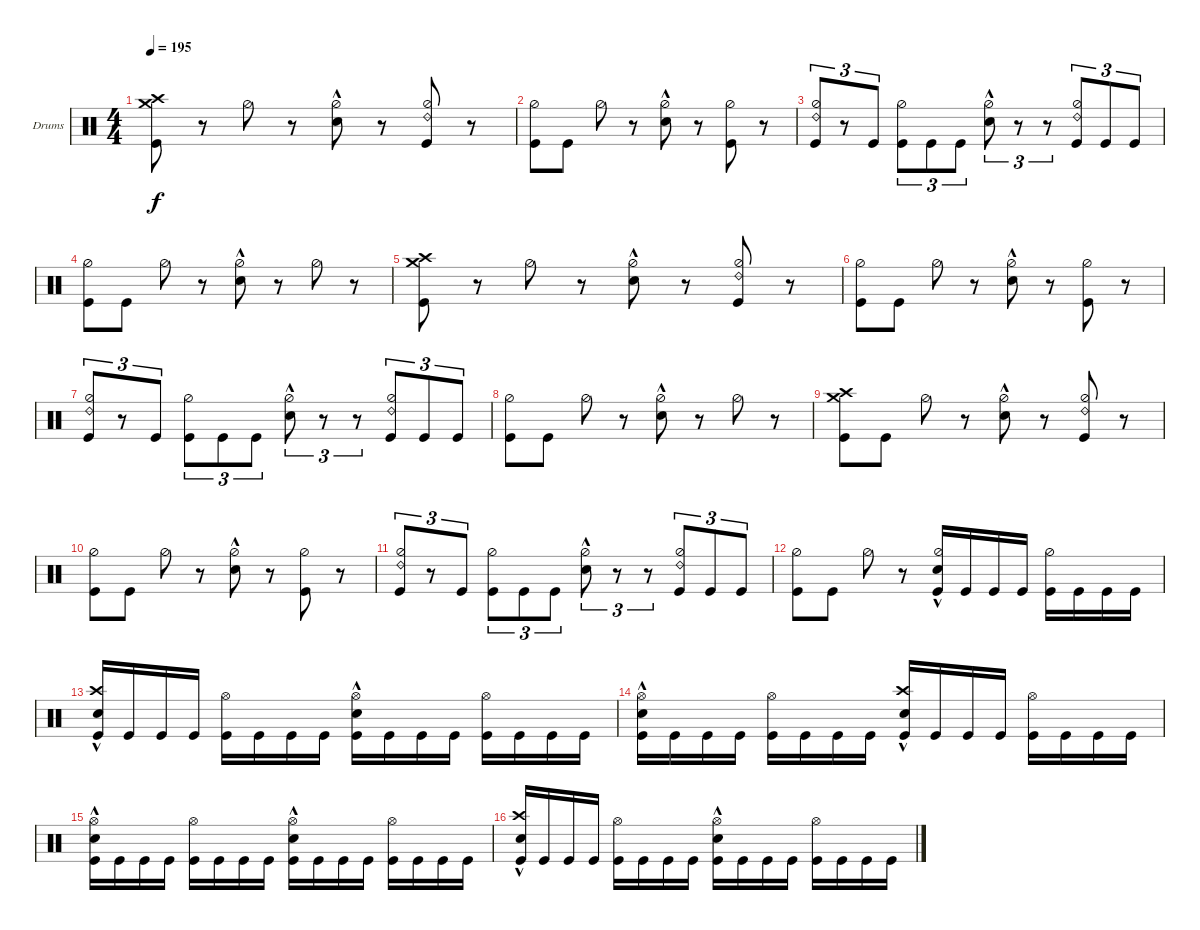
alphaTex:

\defaultSystemsLayout 4
\bracketExtendMode groupsimilarinstruments
\firstSystemTrackNameOrientation horizontal
\otherSystemsTrackNameOrientation horizontal
\track ("Drumkit" "Drums") {instrument percussion}
\staff {score}
\articulation defaults
\ts (4 4)
\tempo 195
\clef neutral
\ks c
("Kick (hit)" "Crash medium (hit)" "Crash high (hit)").8{dy f} r.8 "Hi-Hat (half)".8 r.8 ("Hi-Hat (half)" "Snare (hit) 2"{hac}).8 r.8 ("Hi-Hat (half)" "Kick (hit)" "Ride (bell) 2").8 r.8 |
("Kick (hit)" "Hi-Hat (half)").8 "Kick (hit)".8 "Hi-Hat (half)".8 r.8 ("Hi-Hat (half)" "Snare (hit) 2"{hac}).8 r.8 ("Hi-Hat (half)" "Kick (hit)").8 r.8 |
("Kick (hit)" "Hi-Hat (half)" "Ride (bell) 2").8{tu (3 2)} r.8{tu (3 2)} "Kick (hit)".8{tu (3 2)} ("Kick (hit)" "Hi-Hat (half)").8{tu (3 2)} "Kick (hit)".8{tu (3 2)} "Kick (hit)".8{tu (3 2)} ("Hi-Hat (half)" "Snare (hit) 2"{hac}).8{tu (3 2)} r.8{tu (3 2)} r.8{tu (3 2)} ("Kick (hit)" "Hi-Hat (half)" "Ride (bell) 2").8{tu (3 2)} "Kick (hit)".8{tu (3 2)} "Kick (hit)".8{tu (3 2)} |
("Kick (hit)" "Hi-Hat (half)").8 "Kick (hit)".8 "Hi-Hat (half)".8 r.8 ("Hi-Hat (half)" "Snare (hit) 2"{hac}).8 r.8 "Hi-Hat (half)".8 r.8 |
("Kick (hit)" "Crash medium (hit)" "Crash high (hit)").8 r.8 "Hi-Hat (half)".8 r.8 ("Hi-Hat (half)" "Snare (hit) 2"{hac}).8 r.8 ("Hi-Hat (half)" "Kick (hit)" "Ride (bell) 2").8 r.8 |
("Kick (hit)" "Hi-Hat (half)").8 "Kick (hit)".8 "Hi-Hat (half)".8 r.8 ("Hi-Hat (half)" "Snare (hit) 2"{hac}).8 r.8 ("Hi-Hat (half)" "Kick (hit)").8 r.8 |
("Kick (hit)" "Hi-Hat (half)" "Ride (bell) 2").8{tu (3 2)} r.8{tu (3 2)} "Kick (hit)".8{tu (3 2)} ("Kick (hit)" "Hi-Hat (half)").8{tu (3 2)} "Kick (hit)".8{tu (3 2)} "Kick (hit)".8{tu (3 2)} ("Hi-Hat (half)" "Snare (hit) 2"{hac}).8{tu (3 2)} r.8{tu (3 2)} r.8{tu (3 2)} ("Kick (hit)" "Hi-Hat (half)" "Ride (bell) 2").8{tu (3 2)} "Kick (hit)".8{tu (3 2)} "Kick (hit)".8{tu (3 2)} |
("Kick (hit)" "Hi-Hat (half)").8 "Kick (hit)".8 "Hi-Hat (half)".8 r.8 ("Hi-Hat (half)" "Snare (hit) 2"{hac}).8 r.8 "Hi-Hat (half)".8 r.8 |
("Kick (hit)" "Crash medium (hit)" "Crash high (hit)").8 "Kick (hit)".8 "Hi-Hat (half)".8 r.8 ("Hi-Hat (half)" "Snare (hit) 2"{hac}).8 r.8 ("Hi-Hat (half)" "Kick (hit)" "Ride (bell) 2").8 r.8 |
("Kick (hit)" "Hi-Hat (half)").8 "Kick (hit)".8 "Hi-Hat (half)".8 r.8 ("Hi-Hat (half)" "Snare (hit) 2"{hac}).8 r.8 ("Hi-Hat (half)" "Kick (hit)").8 r.8 |
("Kick (hit)" "Hi-Hat (half)" "Ride (bell) 2").8{tu (3 2)} r.8{tu (3 2)} "Kick (hit)".8{tu (3 2)} ("Kick (hit)" "Hi-Hat (half)").8{tu (3 2)} "Kick (hit)".8{tu (3 2)} "Kick (hit)".8{tu (3 2)} ("Hi-Hat (half)" "Snare (hit) 2"{hac}).8{tu (3 2)} r.8{tu (3 2)} r.8{tu (3 2)} ("Kick (hit)" "Hi-Hat (half)" "Ride (bell) 2").8{tu (3 2)} "Kick (hit)".8{tu (3 2)} "Kick (hit)".8{tu (3 2)} |
("Kick (hit)" "Hi-Hat (half)").8 "Kick (hit)".8 "Hi-Hat (half)".8 r.8 ("Kick (hit)" "Snare (hit) 2"{hac} "Hi-Hat (half)").16 "Kick (hit)".16 "Kick (hit)".16 "Kick (hit)".16 ("Kick (hit)" "Hi-Hat (half)").16 "Kick (hit)".16 "Kick (hit)".16 "Kick (hit)".16 |
("Kick (hit)" "Snare (hit) 2"{hac} "Crash high (hit)").16 "Kick (hit)".16 "Kick (hit)".16 "Kick (hit)".16 ("Kick (hit)" "Hi-Hat (open)").16 "Kick (hit)".16 "Kick (hit)".16 "Kick (hit)".16 ("Kick (hit)" "Hi-Hat (open)" "Snare (hit) 2"{hac}).16 "Kick (hit)".16 "Kick (hit)".16 "Kick (hit)".16 ("Kick (hit)" "Hi-Hat (open)").16 "Kick (hit)".16 "Kick (hit)".16 "Kick (hit)".16 |
("Kick (hit)" "Snare (hit) 2"{hac} "Hi-Hat (open)").16 "Kick (hit)".16 "Kick (hit)".16 "Kick (hit)".16 ("Kick (hit)" "Hi-Hat (open)").16 "Kick (hit)".16 "Kick (hit)".16 "Kick (hit)".16 ("Kick (hit)" "Snare (hit) 2"{hac} "Crash high (hit)").16 "Kick (hit)".16 "Kick (hit)".16 "Kick (hit)".16 ("Kick (hit)" "Hi-Hat (open)").16 "Kick (hit)".16 "Kick (hit)".16 "Kick (hit)".16 |
("Kick (hit)" "Snare (hit) 2"{hac} "Hi-Hat (open)").16 "Kick (hit)".16 "Kick (hit)".16 "Kick (hit)".16 ("Kick (hit)" "Hi-Hat (open)").16 "Kick (hit)".16 "Kick (hit)".16 "Kick (hit)".16 ("Kick (hit)" "Snare (hit) 2"{hac} "Hi-Hat (open)").16 "Kick (hit)".16 "Kick (hit)".16 "Kick (hit)".16 ("Kick (hit)" "Hi-Hat (open)").16 "Kick (hit)".16 "Kick (hit)".16 "Kick (hit)".16 |
("Kick (hit)" "Snare (hit) 2"{hac} "Crash high (hit)").16 "Kick (hit)".16 "Kick (hit)".16 "Kick (hit)".16 ("Kick (hit)" "Hi-Hat (open)").16 "Kick (hit)".16 "Kick (hit)".16 "Kick (hit)".16 ("Kick (hit)" "Hi-Hat (open)" "Snare (hit) 2"{hac}).16 "Kick (hit)".16 "Kick (hit)".16 "Kick (hit)".16 ("Kick (hit)" "Hi-Hat (open)").16 "Kick (hit)".16 "Kick (hit)".16 "Kick (hit)".16
